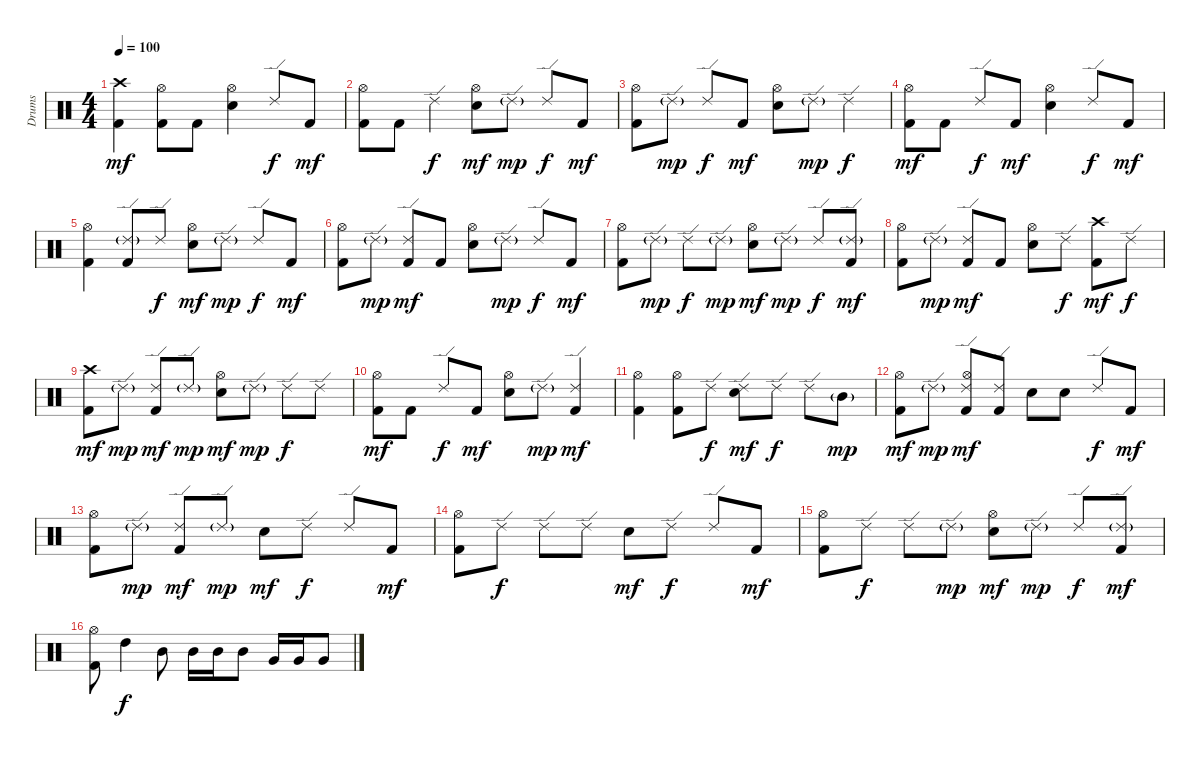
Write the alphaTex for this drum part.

\track ("Drums" "Drums") {instrument percussion}
\staff {score}
\articulation defaults
\ts (4 4)
\tempo 100
\clef neutral
\ks c
("Crash high (hit)" "Kick (hit) 2").4{dy mf} ("Hi-Hat (open)" "Kick (hit) 2").8 "Kick (hit) 2".8 ("Hi-Hat (open)" "Snare (hit) 2").4 "Ride (edge) 2".8{dy f} "Kick (hit) 2".8{dy mf} |
("Hi-Hat (open)" "Kick (hit) 2").8 "Kick (hit) 2".8 "Ride (edge) 2".4{dy f} ("Hi-Hat (open)" "Snare (hit) 2").8{dy mf} "Ride (edge) 2"{g}.8{dy mp} "Ride (edge) 2".8{dy f} "Kick (hit) 2".8{dy mf} |
("Hi-Hat (open)" "Kick (hit) 2").8 "Ride (edge) 2"{g}.8{dy mp} "Ride (edge) 2".8{dy f} "Kick (hit) 2".8{dy mf} ("Hi-Hat (open)" "Snare (hit) 2").8 "Ride (edge) 2"{g}.8{dy mp} "Ride (edge) 2".4{dy f} |
("Hi-Hat (open)" "Kick (hit) 2").8{dy mf} "Kick (hit) 2".8 "Ride (edge) 2".8{dy f} "Kick (hit) 2".8{dy mf} ("Hi-Hat (open)" "Snare (hit) 2").4 "Ride (edge) 2".8{dy f} "Kick (hit) 2".8{dy mf} |
("Hi-Hat (open)" "Kick (hit) 2").4 ("Ride (edge) 2"{g} "Kick (hit) 2").8 "Ride (edge) 2".8{dy f} ("Hi-Hat (open)" "Snare (hit) 2").8{dy mf} "Ride (edge) 2"{g}.8{dy mp} "Ride (edge) 2".8{dy f} "Kick (hit) 2".8{dy mf} |
("Hi-Hat (open)" "Kick (hit) 2").8 "Ride (edge) 2"{g}.8{dy mp} ("Ride (edge) 2" "Kick (hit) 2").8{dy mf} "Kick (hit) 2".8 ("Hi-Hat (open)" "Snare (hit) 2").8 "Ride (edge) 2"{g}.8{dy mp} "Ride (edge) 2".8{dy f} "Kick (hit) 2".8{dy mf} |
("Hi-Hat (open)" "Kick (hit) 2").8 "Ride (edge) 2"{g}.8{dy mp} "Ride (edge) 2".8{dy f} "Ride (edge) 2"{g}.8{dy mp} ("Hi-Hat (open)" "Snare (hit) 2").8{dy mf} "Ride (edge) 2"{g}.8{dy mp} "Ride (edge) 2".8{dy f} ("Ride (edge) 2"{g} "Kick (hit) 2").8{dy mf} |
("Hi-Hat (open)" "Kick (hit) 2").8 "Ride (edge) 2"{g}.8{dy mp} ("Ride (edge) 2" "Kick (hit) 2").8{dy mf} "Kick (hit) 2".8 ("Hi-Hat (open)" "Snare (hit) 2").8 "Ride (edge) 2".8{dy f} ("Crash high (hit)" "Kick (hit) 2").8{dy mf} "Ride (edge) 2".8{dy f} |
("Crash high (hit)" "Kick (hit) 2").8{dy mf} "Ride (edge) 2"{g}.8{dy mp} ("Ride (edge) 2" "Kick (hit) 2").8{dy mf} "Ride (edge) 2"{g}.8{dy mp} ("Hi-Hat (open)" "Snare (hit) 2").8{dy mf} "Ride (edge) 2"{g}.8{dy mp} "Ride (edge) 2".8{dy f} "Ride (edge) 2".8 |
("Hi-Hat (open)" "Kick (hit) 2").8{dy mf} "Kick (hit) 2".8 "Ride (edge) 2".8{dy f} "Kick (hit) 2".8{dy mf} ("Hi-Hat (open)" "Snare (hit) 2").8 "Ride (edge) 2"{g}.8{dy mp} ("Ride (edge) 2" "Kick (hit) 2").4{dy mf} |
("Hi-Hat (open)" "Kick (hit) 2").4 ("Hi-Hat (open)" "Kick (hit) 2").8 "Ride (edge) 2".8{dy f} ("Ride (edge) 2" "Snare (hit) 2").8{dy mf} "Ride (edge) 2".8{dy f} "Ride (edge) 2".8 "Mid Tom (hit)"{g}.8{dy mp} |
("Hi-Hat (open)" "Kick (hit) 2").8{dy mf} "Ride (edge) 2"{g}.8{dy mp} ("Ride (edge) 2" "Hi-Hat (open)" "Kick (hit) 2").8{dy mf} ("Ride (edge) 2" "Kick (hit) 2").8 "Snare (hit) 2".8 "Snare (hit) 2".8 "Ride (edge) 2".8{dy f} "Kick (hit) 2".8{dy mf} |
("Hi-Hat (open)" "Kick (hit) 2").8 "Ride (edge) 2"{g}.8{dy mp} ("Ride (edge) 2" "Kick (hit) 2").8{dy mf} "Ride (edge) 2"{g}.8{dy mp} "Snare (hit) 2".8{dy mf} "Ride (edge) 2".8{dy f} "Ride (edge) 2".8 "Kick (hit) 2".8{dy mf} |
("Hi-Hat (open)" "Kick (hit) 2").8 "Ride (edge) 2".8{dy f} "Ride (edge) 2".8 "Ride (edge) 2".8 "Snare (hit) 2".8{dy mf} "Ride (edge) 2".8{dy f} "Ride (edge) 2".8 "Kick (hit) 2".8{dy mf} |
("Hi-Hat (open)" "Kick (hit) 2").8 "Ride (edge) 2".8{dy f} "Ride (edge) 2".8 "Ride (edge) 2"{g}.8{dy mp} ("Hi-Hat (open)" "Snare (hit) 2").8{dy mf} "Ride (edge) 2"{g}.8{dy mp} "Ride (edge) 2".8{dy f} ("Ride (edge) 2"{g} "Kick (hit) 2").8{dy mf} |
("Hi-Hat (open)" "Kick (hit) 2").8 "High Tom (hit)".4{dy f} "Mid Tom (hit)".8 "Mid Tom (hit)".16 "Mid Tom (hit)".16 "Mid Tom (hit)".8 "Very Low Tom (hit)".16 "Very Low Tom (hit)".16 "Very Low Tom (hit)".8
